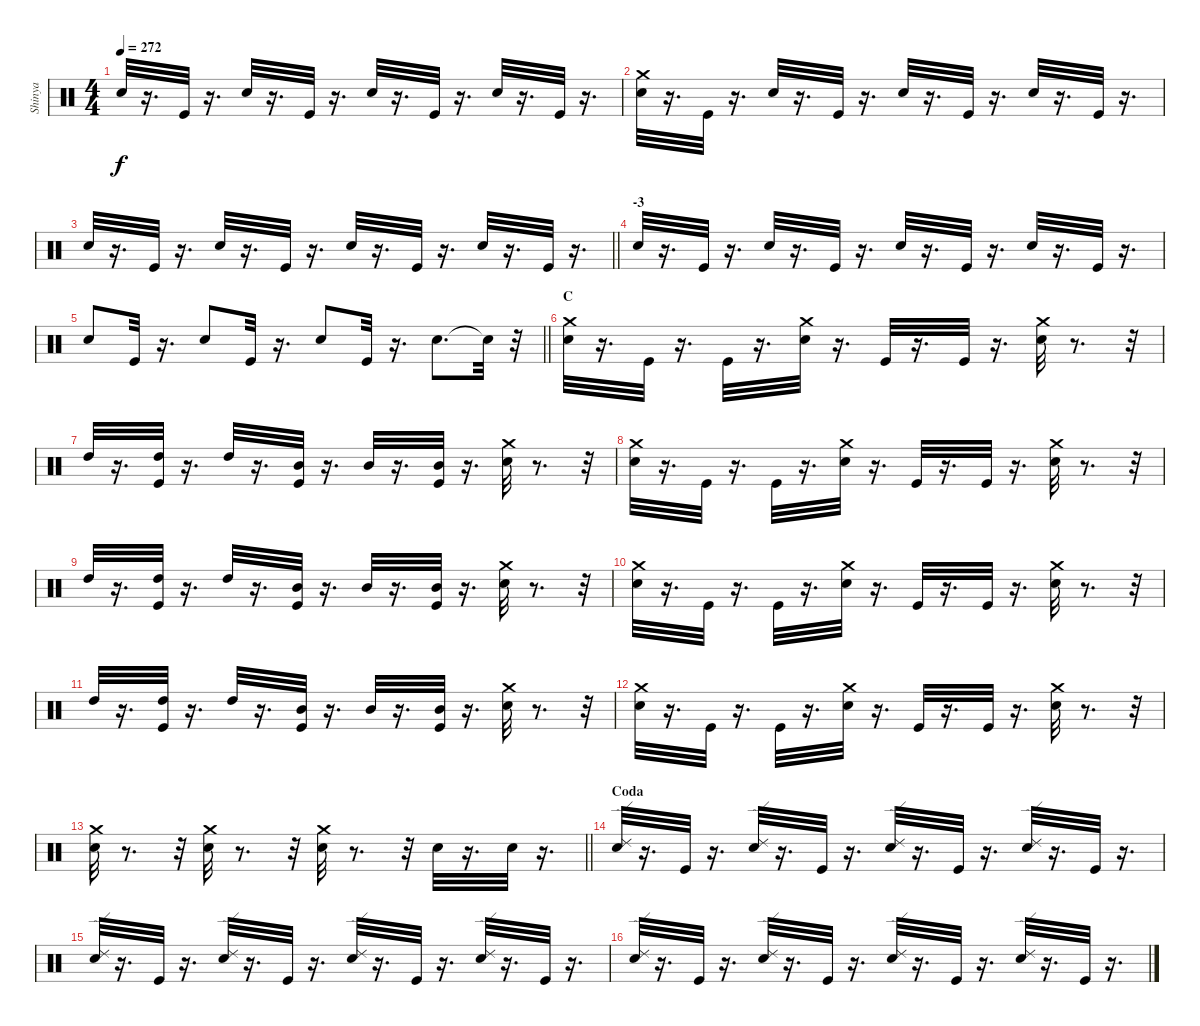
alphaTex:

\track ("Shinya" "Shinya") {instrument percussion}
\staff {score}
\articulation defaults
\ts (4 4)
\tempo 272
\clef neutral
\ks c "Snare (hit) 2".32{dy f}
r.16{d} "Kick (hit)".32 r.16{d} "Snare (hit) 2".32 r.16{d} "Kick (hit)".32 r.16{d} "Snare (hit) 2".32 r.16{d} "Kick (hit)".32 r.16{d} "Snare (hit) 2".32 r.16{d} "Kick (hit)".32 r.16{d} |
("Crash medium (hit)" "Snare (hit) 2").32 r.16{d} "Kick (hit)".32 r.16{d} "Snare (hit) 2".32 r.16{d} "Kick (hit)".32 r.16{d} "Snare (hit) 2".32 r.16{d} "Kick (hit)".32 r.16{d} "Snare (hit) 2".32 r.16{d} "Kick (hit)".32 r.16{d} |
\barLineRight lightlight "Snare (hit) 2".32
r.16{d} "Kick (hit)".32 r.16{d} "Snare (hit) 2".32 r.16{d} "Kick (hit)".32 r.16{d} "Snare (hit) 2".32 r.16{d} "Kick (hit)".32 r.16{d} "Snare (hit) 2".32 r.16{d} "Kick (hit)".32 r.16{d} |
\section ("" "-3")
"Snare (hit) 2".32 r.16{d} "Kick (hit)".32 r.16{d} "Snare (hit) 2".32 r.16{d} "Kick (hit)".32 r.16{d} "Snare (hit) 2".32 r.16{d} "Kick (hit)".32 r.16{d} "Snare (hit) 2".32 r.16{d} "Kick (hit)".32 r.16{d} |
\barLineRight lightlight "Snare (hit) 2".8 "Kick (hit)".32
r.16{d} "Snare (hit) 2".8 "Kick (hit)".32 r.16{d} "Snare (hit) 2".8 "Kick (hit)".32 r.16{d} "Snare (hit) 2".8{d} "Snare (hit)"{t}.32 r.32 |
\section ("" "C")
("Snare (hit) 2" "Crash medium (hit)").32 r.16{d} "Kick (hit)".32 r.16{d} "Kick (hit)".32 r.16{d} ("Crash medium (hit)" "Snare (hit) 2").32 r.16{d} "Kick (hit)".32 r.16{d} "Kick (hit)".32 r.16{d} ("Snare (hit) 2" "Crash medium (hit)").32 r.8{d} r.32 |
"High Tom (hit)".32 r.16{d} ("Kick (hit)" "High Tom (hit)").32 r.16{d} "High Tom (hit)".32 r.16{d} ("Kick (hit)" "Mid Tom (hit)").32 r.16{d} "Mid Tom (hit)".32 r.16{d} ("Kick (hit)" "Mid Tom (hit)").32 r.16{d} ("Crash medium (hit)" "Snare (hit) 2").32 r.8{d} r.32 |
("Snare (hit) 2" "Crash medium (hit)").32 r.16{d} "Kick (hit)".32 r.16{d} "Kick (hit)".32 r.16{d} ("Crash medium (hit)" "Snare (hit) 2").32 r.16{d} "Kick (hit)".32 r.16{d} "Kick (hit)".32 r.16{d} ("Snare (hit) 2" "Crash medium (hit)").32 r.8{d} r.32 |
"High Tom (hit)".32 r.16{d} ("Kick (hit)" "High Tom (hit)").32 r.16{d} "High Tom (hit)".32 r.16{d} ("Kick (hit)" "Mid Tom (hit)").32 r.16{d} "Mid Tom (hit)".32 r.16{d} ("Kick (hit)" "Mid Tom (hit)").32 r.16{d} ("Crash medium (hit)" "Snare (hit) 2").32 r.8{d} r.32 |
("Snare (hit) 2" "Crash medium (hit)").32 r.16{d} "Kick (hit)".32 r.16{d} "Kick (hit)".32 r.16{d} ("Crash medium (hit)" "Snare (hit) 2").32 r.16{d} "Kick (hit)".32 r.16{d} "Kick (hit)".32 r.16{d} ("Snare (hit) 2" "Crash medium (hit)").32 r.8{d} r.32 |
"High Tom (hit)".32 r.16{d} ("Kick (hit)" "High Tom (hit)").32 r.16{d} "High Tom (hit)".32 r.16{d} ("Kick (hit)" "Mid Tom (hit)").32 r.16{d} "Mid Tom (hit)".32 r.16{d} ("Kick (hit)" "Mid Tom (hit)").32 r.16{d} ("Crash medium (hit)" "Snare (hit) 2").32 r.8{d} r.32 |
("Snare (hit) 2" "Crash medium (hit)").32 r.16{d} "Kick (hit)".32 r.16{d} "Kick (hit)".32 r.16{d} ("Crash medium (hit)" "Snare (hit) 2").32 r.16{d} "Kick (hit)".32 r.16{d} "Kick (hit)".32 r.16{d} ("Snare (hit) 2" "Crash medium (hit)").32 r.8{d} r.32 |
\barLineRight lightlight
("Snare (hit) 2" "Crash medium (hit)").32 r.8{d} r.32 ("Snare (hit) 2" "Crash medium (hit)").32 r.8{d} r.32 ("Snare (hit) 2" "Crash medium (hit)").32 r.8{d} r.32 "Snare (hit) 2".32 r.16{d} "Snare (hit) 2".32 r.16{d} |
\section ("" "Coda")
("Snare (hit) 2" "Ride (edge) 2").32 r.16{d} "Kick (hit)".32 r.16{d} ("Snare (hit) 2" "Ride (edge) 2").32 r.16{d} "Kick (hit)".32 r.16{d} ("Snare (hit) 2" "Ride (edge) 2").32 r.16{d} "Kick (hit)".32 r.16{d} ("Snare (hit) 2" "Ride (edge) 2").32 r.16{d} "Kick (hit)".32 r.16{d} |
("Snare (hit) 2" "Ride (edge) 2").32 r.16{d} "Kick (hit)".32 r.16{d} ("Snare (hit) 2" "Ride (edge) 2").32 r.16{d} "Kick (hit)".32 r.16{d} ("Snare (hit) 2" "Ride (edge) 2").32 r.16{d} "Kick (hit)".32 r.16{d} ("Snare (hit) 2" "Ride (edge) 2").32 r.16{d} "Kick (hit)".32 r.16{d} |
("Snare (hit) 2" "Ride (edge) 2").32 r.16{d} "Kick (hit)".32 r.16{d} ("Snare (hit) 2" "Ride (edge) 2").32 r.16{d} "Kick (hit)".32 r.16{d} ("Snare (hit) 2" "Ride (edge) 2").32 r.16{d} "Kick (hit)".32 r.16{d} ("Snare (hit) 2" "Ride (edge) 2").32 r.16{d} "Kick (hit)".32 r.16{d}
